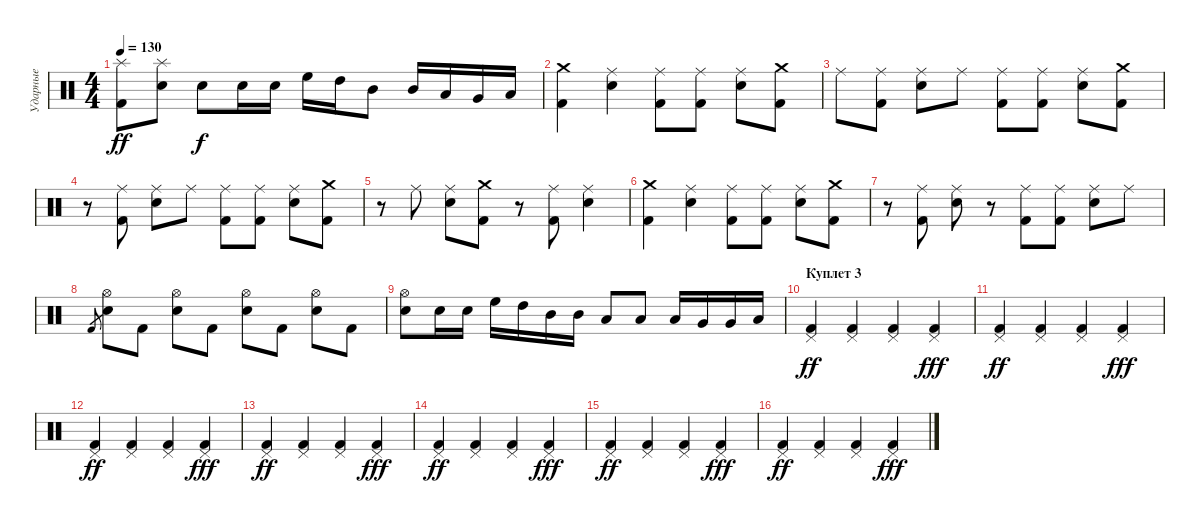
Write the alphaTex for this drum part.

\track ("Ударные" "Ударные") {instrument percussion}
\staff {score}
\articulation defaults
\ts (4 4)
\tempo 130
\clef neutral
\ks c
("Kick (hit) 2" "Splash (hit)").8{dy ff} ("Electric Snare (hit)" "Splash (hit)").8 "Electric Snare (hit)".8{dy f} "Electric Snare (hit)".16 "Electric Snare (hit)".16 "High Floor Tom (hit)".16 "High Tom (hit)".16 "Mid Tom (hit)".8 "Mid Tom (hit)".16 "Low Tom (hit)".16 "Very Low Tom (hit)".16 "Low Floor Tom (hit)".16 |
("Kick (hit) 2" "Crash medium (hit)").4 ("Electric Snare (hit)" "Ride (middle)").4 ("Kick (hit) 2" "Ride (middle)").8 ("Kick (hit) 2" "Ride (middle)").8 ("Electric Snare (hit)" "Ride (middle)").8 ("Kick (hit) 2" "Crash medium (hit)").8 |
"Ride (middle)".8 ("Kick (hit) 2" "Ride (middle)").8 ("Electric Snare (hit)" "Ride (middle)").8 "Ride (middle)".8 ("Kick (hit) 2" "Ride (middle)").8 ("Kick (hit) 2" "Ride (middle)").8 ("Electric Snare (hit)" "Ride (middle)").8 ("Kick (hit) 2" "Crash medium (hit)").8 |
r.8 ("Kick (hit) 2" "Ride (middle)").8 ("Electric Snare (hit)" "Ride (middle)").8 "Ride (middle)".8 ("Kick (hit) 2" "Ride (middle)").8 ("Kick (hit) 2" "Ride (middle)").8 ("Electric Snare (hit)" "Ride (middle)").8 ("Kick (hit) 2" "Crash medium (hit)").8 |
r.8 "Ride (middle)".8 ("Electric Snare (hit)" "Ride (middle)").8 ("Kick (hit) 2" "Crash medium (hit)").8 r.8 ("Kick (hit) 2" "Ride (middle)").8 ("Electric Snare (hit)" "Ride (middle)").4 |
("Kick (hit) 2" "Crash medium (hit)").4 ("Electric Snare (hit)" "Ride (middle)").4 ("Kick (hit) 2" "Ride (middle)").8 ("Kick (hit) 2" "Ride (middle)").8 ("Electric Snare (hit)" "Ride (middle)").8 ("Kick (hit) 2" "Crash medium (hit)").8 |
r.8 ("Kick (hit) 2" "Ride (middle)").8 ("Electric Snare (hit)" "Ride (middle)").8 r.8 ("Kick (hit) 2" "Ride (middle)").8 ("Kick (hit) 2" "Ride (middle)").8 ("Electric Snare (hit)" "Ride (middle)").8 "Ride (middle)".8 |
"Kick (hit) 2".8{gr} ("Electric Snare (hit)" "Hi-Hat (open)").8 "Kick (hit) 2".8 ("Electric Snare (hit)" "Hi-Hat (open)").8 "Kick (hit) 2".8 ("Electric Snare (hit)" "Hi-Hat (open)").8 "Kick (hit) 2".8 ("Electric Snare (hit)" "Hi-Hat (open)").8 "Kick (hit) 2".8 |
("Electric Snare (hit)" "Hi-Hat (open)").8 "Electric Snare (hit)".16 "Electric Snare (hit)".16 "High Floor Tom (hit)".16 "High Tom (hit)".16 "Mid Tom (hit)".16 "Mid Tom (hit)".16 "Low Tom (hit)".8 "Low Tom (hit)".8 "Low Tom (hit)".16 "Very Low Tom (hit)".16 "Very Low Tom (hit)".16 "Low Floor Tom (hit)".16 |
\section ("" "Куплет 3")
("Kick (hit) 2" "Pedal Hi-Hat (hit)").4{dy ff} ("Kick (hit) 2" "Pedal Hi-Hat (hit)").4 ("Kick (hit) 2" "Pedal Hi-Hat (hit)").4 ("Kick (hit) 2" "Pedal Hi-Hat (hit)").4{dy fff} |
("Kick (hit) 2" "Pedal Hi-Hat (hit)").4{dy ff} ("Kick (hit) 2" "Pedal Hi-Hat (hit)").4 ("Kick (hit) 2" "Pedal Hi-Hat (hit)").4 ("Kick (hit) 2" "Pedal Hi-Hat (hit)").4{dy fff} |
("Kick (hit) 2" "Pedal Hi-Hat (hit)").4{dy ff} ("Kick (hit) 2" "Pedal Hi-Hat (hit)").4 ("Kick (hit) 2" "Pedal Hi-Hat (hit)").4 ("Kick (hit) 2" "Pedal Hi-Hat (hit)").4{dy fff} |
("Kick (hit) 2" "Pedal Hi-Hat (hit)").4{dy ff} ("Kick (hit) 2" "Pedal Hi-Hat (hit)").4 ("Kick (hit) 2" "Pedal Hi-Hat (hit)").4 ("Kick (hit) 2" "Pedal Hi-Hat (hit)").4{dy fff} |
("Kick (hit) 2" "Pedal Hi-Hat (hit)").4{dy ff} ("Kick (hit) 2" "Pedal Hi-Hat (hit)").4 ("Kick (hit) 2" "Pedal Hi-Hat (hit)").4 ("Kick (hit) 2" "Pedal Hi-Hat (hit)").4{dy fff} |
("Kick (hit) 2" "Pedal Hi-Hat (hit)").4{dy ff} ("Kick (hit) 2" "Pedal Hi-Hat (hit)").4 ("Kick (hit) 2" "Pedal Hi-Hat (hit)").4 ("Kick (hit) 2" "Pedal Hi-Hat (hit)").4{dy fff} |
("Kick (hit) 2" "Pedal Hi-Hat (hit)").4{dy ff} ("Kick (hit) 2" "Pedal Hi-Hat (hit)").4 ("Kick (hit) 2" "Pedal Hi-Hat (hit)").4 ("Kick (hit) 2" "Pedal Hi-Hat (hit)").4{dy fff}
